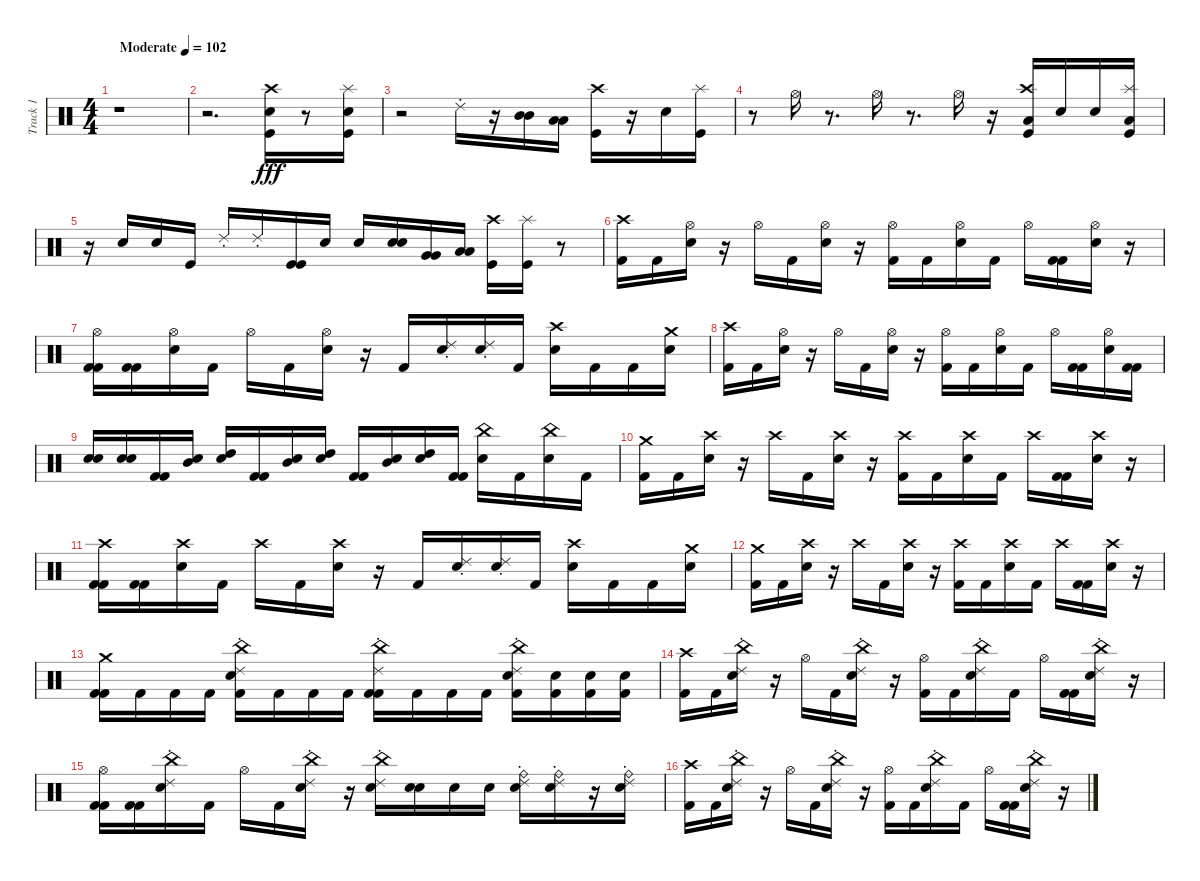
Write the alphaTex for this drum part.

\track ("Track 1" "Track 1") {instrument percussion}
\staff {score}
\articulation defaults
\ts (4 4)
\tempo (102 "Moderate")
\clef neutral
\ks c
r.1{dy fff} |
r.2{d} ("Kick (hit)" "Crash high (hit)" "Snare (hit) 2").16 r.8 ("Snare (hit) 2" "Splash (hit)" "Kick (hit)").16 |
r.2 "Ride (choke) 2".16 r.16 ("Mid Tom (hit)" "Mid Tom (hit)").16 ("Low Tom (hit)" "Low Tom (hit)").16 ("Kick (hit)" "Crash high (hit)").16 r.16 "Snare (hit) 2".16 ("Splash (hit)" "Kick (hit)").16 |
r.8 "Hi-Hat (open)".16 r.8{d} "Hi-Hat (open)".16 r.8{d} "Hi-Hat (open)".16 r.16 ("Kick (hit)" "Crash high (hit)" "Low Floor Tom (hit)").16 "Snare (hit) 2".16 "Snare (hit) 2".16 ("Splash (hit)" "Kick (hit)" "Low Floor Tom (hit)").16 |
r.16 "Snare (hit) 2".16 "Snare (hit) 2".16 "Kick (hit)".16 "Ride (choke) 2".16 "Ride (choke) 2".16 ("Kick (hit)" "Kick (hit)").16 "Snare (hit) 2".16 "Snare (hit) 2".16 ("Snare (hit) 2" "Snare (hit) 2").16 ("Very Low Tom (hit)" "Very Low Tom (hit)").16 ("Low Floor Tom (hit)" "Low Floor Tom (hit)").16 ("Kick (hit)" "Crash high (hit)").16 ("Kick (hit)" "Splash (hit)").16 r.8 |
("Kick (hit) 2" "Crash high (hit)").16 "Kick (hit) 2".16 ("Snare (hit) 2" "Hi-Hat (open)").16 r.16 "Hi-Hat (open)".16 "Kick (hit) 2".16 ("Snare (hit) 2" "Hi-Hat (open)").16 r.16 ("Kick (hit) 2" "Hi-Hat (open)").16 "Kick (hit) 2".16 ("Snare (hit) 2" "Hi-Hat (open)").16 "Kick (hit) 2".16 "Hi-Hat (open)".16 ("Kick (hit) 2" "Kick (hit) 2").16 ("Hi-Hat (open)" "Snare (hit) 2").16 r.16 |
("Hi-Hat (open)" "Kick (hit) 2" "Kick (hit) 2").16 ("Kick (hit) 2" "Kick (hit) 2").16 ("Hi-Hat (open)" "Snare (hit) 2").16 "Kick (hit) 2".16 "Hi-Hat (open)".16 "Kick (hit) 2".16 ("Hi-Hat (open)" "Snare (hit) 2").16 r.16 "Kick (hit) 2".16 ("Snare (hit) 2" "Ride (choke) 2").16 ("Snare (hit) 2" "Ride (choke) 2").16 "Kick (hit) 2".16 ("Snare (hit) 2" "Crash high (hit)").16 "Kick (hit) 2".16 "Kick (hit) 2".16 ("Crash medium (hit)" "Snare (hit) 2").16 |
("Kick (hit) 2" "Crash high (hit)").16 "Kick (hit) 2".16 ("Snare (hit) 2" "Hi-Hat (open)").16 r.16 "Hi-Hat (open)".16 "Kick (hit) 2".16 ("Snare (hit) 2" "Hi-Hat (open)").16 r.16 ("Kick (hit) 2" "Hi-Hat (open)").16 "Kick (hit) 2".16 ("Snare (hit) 2" "Hi-Hat (open)").16 "Kick (hit) 2".16 "Hi-Hat (open)".16 ("Kick (hit) 2" "Kick (hit) 2").16 ("Hi-Hat (open)" "Snare (hit) 2").16 ("Kick (hit) 2" "Kick (hit) 2").16 |
("Snare (hit) 2" "Snare (hit) 2").16 ("Snare (hit) 2" "Snare (hit) 2").16 ("Kick (hit) 2" "Kick (hit) 2").16 ("Mid Tom (hit)" "Snare (hit) 2").16 ("Snare (hit) 2" "High Tom (hit)").16 ("Kick (hit) 2" "Kick (hit) 2").16 ("Mid Tom (hit)" "Snare (hit) 2").16 ("Snare (hit) 2" "High Tom (hit)").16 ("Kick (hit) 2" "Kick (hit) 2").16 ("Mid Tom (hit)" "Snare (hit) 2").16 ("Snare (hit) 2" "High Tom (hit)").16 ("Kick (hit) 2" "Kick (hit) 2").16 ("Snare (hit) 2" "China (hit)").16 "Kick (hit) 2".16 ("Snare (hit) 2" "China (hit)").16 "Kick (hit) 2".16 |
("Kick (hit) 2" "Crash medium (hit)").16 "Kick (hit) 2".16 ("Snare (hit) 2" "Crash high (hit)").16 r.16 "Crash high (hit)".16 "Kick (hit) 2".16 ("Snare (hit) 2" "Crash high (hit)").16 r.16 ("Kick (hit) 2" "Crash high (hit)").16 "Kick (hit) 2".16 ("Snare (hit) 2" "Crash high (hit)").16 "Kick (hit) 2".16 "Crash high (hit)".16 ("Kick (hit) 2" "Kick (hit) 2").16 ("Crash high (hit)" "Snare (hit) 2").16 r.16 |
("Crash high (hit)" "Kick (hit) 2" "Kick (hit) 2").16 ("Kick (hit) 2" "Kick (hit) 2").16 ("Crash high (hit)" "Snare (hit) 2").16 "Kick (hit) 2".16 "Crash high (hit)".16 "Kick (hit) 2".16 ("Crash high (hit)" "Snare (hit) 2").16 r.16 "Kick (hit) 2".16 ("Snare (hit) 2" "Ride (choke) 2").16 ("Snare (hit) 2" "Ride (choke) 2").16 "Kick (hit) 2".16 ("Snare (hit) 2" "Crash high (hit)").16 "Kick (hit) 2".16 "Kick (hit) 2".16 ("Crash medium (hit)" "Snare (hit) 2").16 |
("Kick (hit) 2" "Crash medium (hit)").16 "Kick (hit) 2".16 ("Snare (hit) 2" "Crash high (hit)").16 r.16 "Crash high (hit)".16 "Kick (hit) 2".16 ("Snare (hit) 2" "Crash high (hit)").16 r.16 ("Kick (hit) 2" "Crash high (hit)").16 "Kick (hit) 2".16 ("Snare (hit) 2" "Crash high (hit)").16 "Kick (hit) 2".16 "Crash high (hit)".16 ("Kick (hit) 2" "Kick (hit) 2").16 ("Crash high (hit)" "Snare (hit) 2").16 r.16 |
("Kick (hit) 2" "Crash medium (hit)" "Kick (hit) 2").16 "Kick (hit) 2".16 "Kick (hit) 2".16 "Kick (hit) 2".16 ("China (hit)" "Ride (choke) 2" "Kick (hit) 2" "Snare (hit) 2").16 "Kick (hit) 2".16 "Kick (hit) 2".16 "Kick (hit) 2".16 ("Ride (choke) 2" "China (hit)" "Kick (hit) 2" "Kick (hit) 2").16 "Kick (hit) 2".16 "Kick (hit) 2".16 "Kick (hit) 2".16 ("Ride (choke) 2" "China (hit)" "Kick (hit) 2" "Snare (hit) 2").16 ("Kick (hit) 2" "Snare (hit) 2").16 ("Kick (hit) 2" "Snare (hit) 2").16 ("Kick (hit) 2" "Snare (hit) 2").16 |
("Kick (hit) 2" "Crash high (hit)").16 "Kick (hit) 2".16 ("Snare (hit) 2" "China (hit)" "Ride (choke) 2").16 r.16 "Hi-Hat (open)".16 "Kick (hit) 2".16 ("Snare (hit) 2" "China (hit)" "Ride (choke) 2").16 r.16 ("Kick (hit) 2" "Hi-Hat (open)").16 "Kick (hit) 2".16 ("Snare (hit) 2" "China (hit)" "Ride (choke) 2").16 "Kick (hit) 2".16 "Hi-Hat (open)".16 ("Kick (hit) 2" "Kick (hit) 2").16 ("China (hit)" "Ride (choke) 2" "Snare (hit) 2").16 r.16 |
("Hi-Hat (open)" "Kick (hit) 2" "Kick (hit) 2").16 ("Kick (hit) 2" "Kick (hit) 2").16 ("China (hit)" "Ride (choke) 2" "Snare (hit) 2").16 "Kick (hit) 2".16 "Hi-Hat (open)".16 "Kick (hit) 2".16 ("China (hit)" "Ride (choke) 2" "Snare (hit) 2").16 r.16 ("Snare (hit) 2" "China (hit)" "Ride (choke) 2").16 ("Snare (hit) 2" "Snare (hit) 2").16 "Snare (hit) 2".16 "Snare (hit) 2".16 ("Snare (hit) 2" "Ride (bell)" "Ride (choke) 2").16 ("Snare (hit) 2" "Ride (bell)" "Ride (choke) 2").16 r.16 ("Snare (hit) 2" "Ride (bell)" "Ride (choke) 2").16 |
("Kick (hit) 2" "Crash high (hit)").16 "Kick (hit) 2".16 ("Snare (hit) 2" "China (hit)" "Ride (choke) 2").16 r.16 "Hi-Hat (open)".16 "Kick (hit) 2".16 ("Snare (hit) 2" "China (hit)" "Ride (choke) 2").16 r.16 ("Kick (hit) 2" "Hi-Hat (open)").16 "Kick (hit) 2".16 ("Snare (hit) 2" "China (hit)" "Ride (choke) 2").16 "Kick (hit) 2".16 "Hi-Hat (open)".16 ("Kick (hit) 2" "Kick (hit) 2").16 ("China (hit)" "Ride (choke) 2" "Snare (hit) 2").16 r.16
